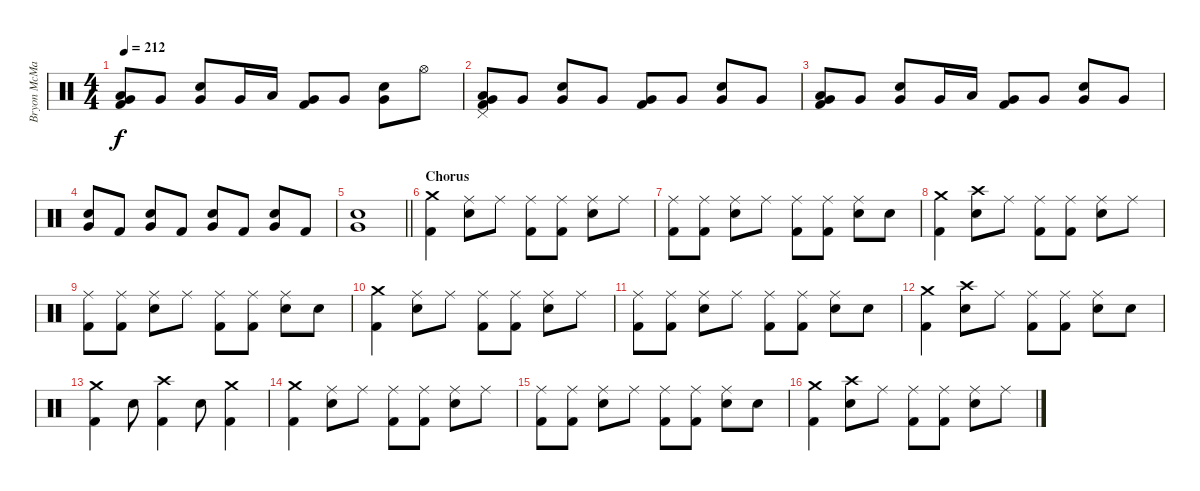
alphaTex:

\track ("Bryon McMackin - Drums" "Bryon McMa") {instrument percussion}
\staff {score}
\articulation defaults
\ts (4 4)
\tempo 212
\clef neutral
\ks c
("Low Tom (hit)" "Very Low Tom (hit)" "Kick (hit) 2").8{dy f} "Very Low Tom (hit)".8 ("Electric Snare (hit)" "Very Low Tom (hit)").8 "Very Low Tom (hit)".16 "Low Tom (hit)".16 ("Very Low Tom (hit)" "Kick (hit) 2").8 "Very Low Tom (hit)".8 ("Electric Snare (hit)" "Very Low Tom (hit)").8 "Hi-Hat (open)".8 |
("Low Tom (hit)" "Pedal Hi-Hat (hit)" "Very Low Tom (hit)" "Kick (hit) 2").8 "Very Low Tom (hit)".8 ("Electric Snare (hit)" "Very Low Tom (hit)").8 "Very Low Tom (hit)".8 ("Very Low Tom (hit)" "Kick (hit) 2").8 "Very Low Tom (hit)".8 ("Electric Snare (hit)" "Very Low Tom (hit)").8 "Very Low Tom (hit)".8 |
("Low Tom (hit)" "Very Low Tom (hit)" "Kick (hit) 2").8 "Very Low Tom (hit)".8 ("Electric Snare (hit)" "Very Low Tom (hit)").8 "Very Low Tom (hit)".16 "Low Tom (hit)".16 ("Very Low Tom (hit)" "Kick (hit) 2").8 "Very Low Tom (hit)".8 ("Electric Snare (hit)" "Very Low Tom (hit)").8 "Very Low Tom (hit)".8 |
("Electric Snare (hit)" "Very Low Tom (hit)").8 "Kick (hit) 2".8 ("Electric Snare (hit)" "Very Low Tom (hit)").8 "Kick (hit) 2".8 ("Electric Snare (hit)" "Very Low Tom (hit)").8 "Kick (hit) 2".8 ("Electric Snare (hit)" "Very Low Tom (hit)").8 "Kick (hit) 2".8 |
\barLineRight lightlight
("Electric Snare (hit)" "Very Low Tom (hit)").1 |
\section ("" "Chorus")
("Crash medium (hit)" "Kick (hit) 2").4 ("Ride (middle)" "Electric Snare (hit)").8 "Ride (middle)".8 ("Ride (middle)" "Kick (hit) 2").8 ("Ride (middle)" "Kick (hit) 2").8 ("Ride (middle)" "Electric Snare (hit)").8 "Ride (middle)".8 |
("Ride (middle)" "Kick (hit) 2").8 ("Ride (middle)" "Kick (hit) 2").8 ("Ride (middle)" "Electric Snare (hit)").8 "Ride (middle)".8 ("Ride (middle)" "Kick (hit) 2").8 ("Ride (middle)" "Kick (hit) 2").8 ("Ride (middle)" "Electric Snare (hit)").8 "Electric Snare (hit)".8 |
("Crash medium (hit)" "Kick (hit) 2").4 ("Crash high (hit)" "Electric Snare (hit)").8 "Ride (middle)".8 ("Ride (middle)" "Kick (hit) 2").8 ("Ride (middle)" "Kick (hit) 2").8 ("Ride (middle)" "Electric Snare (hit)").8 "Ride (middle)".8 |
("Ride (middle)" "Kick (hit) 2").8 ("Ride (middle)" "Kick (hit) 2").8 ("Ride (middle)" "Electric Snare (hit)").8 "Ride (middle)".8 ("Ride (middle)" "Kick (hit) 2").8 ("Ride (middle)" "Kick (hit) 2").8 ("Ride (middle)" "Electric Snare (hit)").8 "Electric Snare (hit)".8 |
("Crash medium (hit)" "Kick (hit) 2").4 ("Ride (middle)" "Electric Snare (hit)").8 "Ride (middle)".8 ("Ride (middle)" "Kick (hit) 2").8 ("Ride (middle)" "Kick (hit) 2").8 ("Ride (middle)" "Electric Snare (hit)").8 "Ride (middle)".8 |
("Ride (middle)" "Kick (hit) 2").8 ("Ride (middle)" "Kick (hit) 2").8 ("Ride (middle)" "Electric Snare (hit)").8 "Ride (middle)".8 ("Ride (middle)" "Kick (hit) 2").8 ("Ride (middle)" "Kick (hit) 2").8 ("Ride (middle)" "Electric Snare (hit)").8 "Electric Snare (hit)".8 |
("Crash medium (hit)" "Kick (hit) 2").4 ("Crash high (hit)" "Electric Snare (hit)").8 "Ride (middle)".8 ("Ride (middle)" "Kick (hit) 2").8 ("Ride (middle)" "Kick (hit) 2").8 ("Ride (middle)" "Electric Snare (hit)").8 "Electric Snare (hit)".8 |
("Crash medium (hit)" "Kick (hit) 2").4 "Electric Snare (hit)".8 ("Crash high (hit)" "Kick (hit) 2").4 "Electric Snare (hit)".8 ("Crash medium (hit)" "Kick (hit) 2").4 |
("Crash medium (hit)" "Kick (hit) 2").4 ("Ride (middle)" "Electric Snare (hit)").8 "Ride (middle)".8 ("Ride (middle)" "Kick (hit) 2").8 ("Ride (middle)" "Kick (hit) 2").8 ("Ride (middle)" "Electric Snare (hit)").8 "Ride (middle)".8 |
("Ride (middle)" "Kick (hit) 2").8 ("Ride (middle)" "Kick (hit) 2").8 ("Ride (middle)" "Electric Snare (hit)").8 "Ride (middle)".8 ("Ride (middle)" "Kick (hit) 2").8 ("Ride (middle)" "Kick (hit) 2").8 ("Ride (middle)" "Electric Snare (hit)").8 "Electric Snare (hit)".8 |
("Crash medium (hit)" "Kick (hit) 2").4 ("Crash high (hit)" "Electric Snare (hit)").8 "Ride (middle)".8 ("Ride (middle)" "Kick (hit) 2").8 ("Ride (middle)" "Kick (hit) 2").8 ("Ride (middle)" "Electric Snare (hit)").8 "Ride (middle)".8
